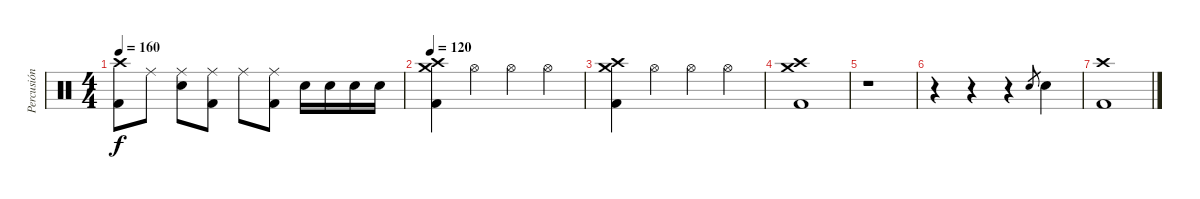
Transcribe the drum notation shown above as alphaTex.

\track ("Percusión" "Percusión") {instrument percussion}
\staff {score}
\articulation defaults
\ts (4 4)
\tempo 160
\clef neutral
\ks c
("Crash high (hit)" "Kick (hit) 2").8{dy f} "Ride (middle)".8 ("Ride (middle)" "Snare (hit) 2").8 ("Ride (middle)" "Kick (hit) 2").8 "Ride (middle)".8 ("Ride (middle)" "Kick (hit) 2").8 "Snare (hit) 2".16 "Snare (hit) 2".16 "Snare (hit) 2".16 "Snare (hit) 2".16 |
\tempo 120
("Crash high (hit)" "Crash medium (hit)" "Kick (hit) 2").4 "Hi-Hat (open)".4 "Hi-Hat (open)".4 "Hi-Hat (open)".4 |
("Crash high (hit)" "Crash medium (hit)" "Kick (hit) 2").4 "Hi-Hat (open)".4 "Hi-Hat (open)".4 "Hi-Hat (open)".4 |
("Crash high (hit)" "Crash medium (hit)" "Kick (hit) 2").1 |
r.1 |
r.4 r.4 r.4 "Snare (hit) 2".8{gr} "Snare (hit) 2".4 |
("Crash high (hit)" "Kick (hit) 2").1
